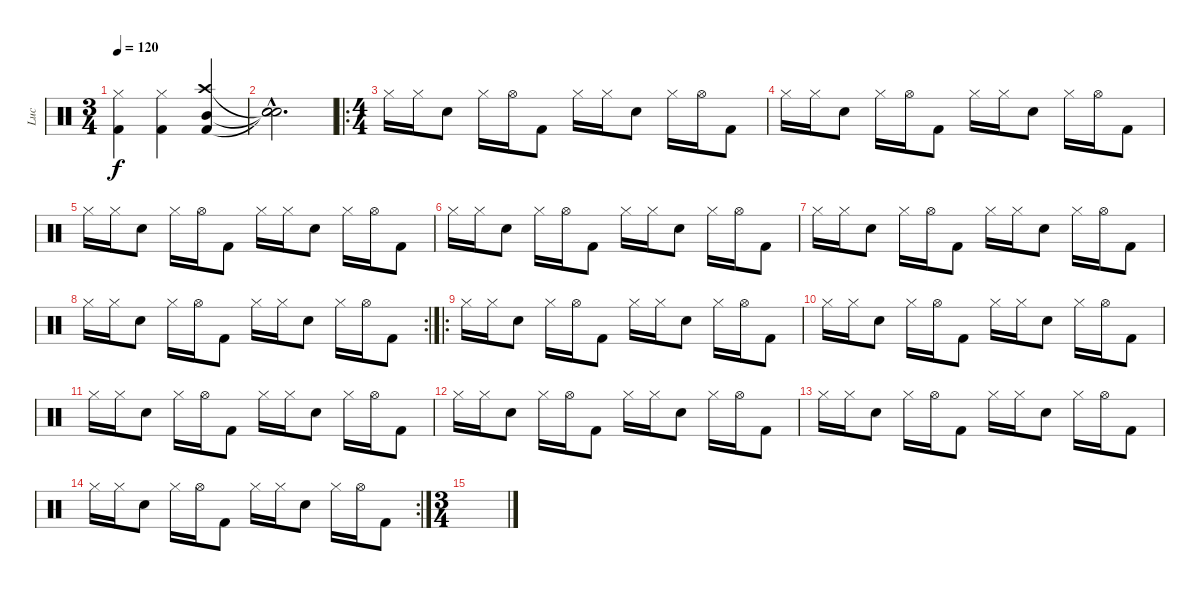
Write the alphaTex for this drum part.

\track ("Luc" "Luc") {instrument percussion}
\staff {score}
\articulation defaults
\ts (3 4)
\tempo 120
\clef neutral
\ks c
("Hi-Hat (closed)" "Kick (hit) 2").4{dy f} ("Hi-Hat (closed)" "Kick (hit) 2").4 ("Crash high (hit)" "Mid Tom (hit)" "Kick (hit) 2").4 |
("Snare (hit)"{hac t} "Snare (hit)"{hac t} "Snare (hit)"{hac t}).2{d} |
\ro
\ts (4 4)
"Hi-Hat (closed)".16 "Hi-Hat (closed)".16 "Snare (hit) 2".8 "Hi-Hat (closed)".16 "Hi-Hat (open)".16 "Kick (hit) 2".8 "Hi-Hat (closed)".16 "Hi-Hat (closed)".16 "Snare (hit) 2".8 "Hi-Hat (closed)".16 "Hi-Hat (open)".16 "Kick (hit) 2".8 |
"Hi-Hat (closed)".16 "Hi-Hat (closed)".16 "Snare (hit) 2".8 "Hi-Hat (closed)".16 "Hi-Hat (open)".16 "Kick (hit) 2".8 "Hi-Hat (closed)".16 "Hi-Hat (closed)".16 "Snare (hit) 2".8 "Hi-Hat (closed)".16 "Hi-Hat (open)".16 "Kick (hit) 2".8 |
"Hi-Hat (closed)".16 "Hi-Hat (closed)".16 "Snare (hit) 2".8 "Hi-Hat (closed)".16 "Hi-Hat (open)".16 "Kick (hit) 2".8 "Hi-Hat (closed)".16 "Hi-Hat (closed)".16 "Snare (hit) 2".8 "Hi-Hat (closed)".16 "Hi-Hat (open)".16 "Kick (hit) 2".8 |
"Hi-Hat (closed)".16 "Hi-Hat (closed)".16 "Snare (hit) 2".8 "Hi-Hat (closed)".16 "Hi-Hat (open)".16 "Kick (hit) 2".8 "Hi-Hat (closed)".16 "Hi-Hat (closed)".16 "Snare (hit) 2".8 "Hi-Hat (closed)".16 "Hi-Hat (open)".16 "Kick (hit) 2".8 |
"Hi-Hat (closed)".16 "Hi-Hat (closed)".16 "Snare (hit) 2".8 "Hi-Hat (closed)".16 "Hi-Hat (open)".16 "Kick (hit) 2".8 "Hi-Hat (closed)".16 "Hi-Hat (closed)".16 "Snare (hit) 2".8 "Hi-Hat (closed)".16 "Hi-Hat (open)".16 "Kick (hit) 2".8 |
\rc 2 "Hi-Hat (closed)".16 "Hi-Hat (closed)".16 "Snare (hit) 2".8 "Hi-Hat (closed)".16 "Hi-Hat (open)".16 "Kick (hit) 2".8 "Hi-Hat (closed)".16 "Hi-Hat (closed)".16 "Snare (hit) 2".8 "Hi-Hat (closed)".16 "Hi-Hat (open)".16 "Kick (hit) 2".8
|
\ro "Hi-Hat (closed)".16 "Hi-Hat (closed)".16 "Snare (hit) 2".8 "Hi-Hat (closed)".16 "Hi-Hat (open)".16 "Kick (hit) 2".8 "Hi-Hat (closed)".16 "Hi-Hat (closed)".16 "Snare (hit) 2".8 "Hi-Hat (closed)".16 "Hi-Hat (open)".16 "Kick (hit) 2".8
|
"Hi-Hat (closed)".16 "Hi-Hat (closed)".16 "Snare (hit) 2".8 "Hi-Hat (closed)".16 "Hi-Hat (open)".16 "Kick (hit) 2".8 "Hi-Hat (closed)".16 "Hi-Hat (closed)".16 "Snare (hit) 2".8 "Hi-Hat (closed)".16 "Hi-Hat (open)".16 "Kick (hit) 2".8 |
"Hi-Hat (closed)".16 "Hi-Hat (closed)".16 "Snare (hit) 2".8 "Hi-Hat (closed)".16 "Hi-Hat (open)".16 "Kick (hit) 2".8 "Hi-Hat (closed)".16 "Hi-Hat (closed)".16 "Snare (hit) 2".8 "Hi-Hat (closed)".16 "Hi-Hat (open)".16 "Kick (hit) 2".8 |
"Hi-Hat (closed)".16 "Hi-Hat (closed)".16 "Snare (hit) 2".8 "Hi-Hat (closed)".16 "Hi-Hat (open)".16 "Kick (hit) 2".8 "Hi-Hat (closed)".16 "Hi-Hat (closed)".16 "Snare (hit) 2".8 "Hi-Hat (closed)".16 "Hi-Hat (open)".16 "Kick (hit) 2".8 |
"Hi-Hat (closed)".16 "Hi-Hat (closed)".16 "Snare (hit) 2".8 "Hi-Hat (closed)".16 "Hi-Hat (open)".16 "Kick (hit) 2".8 "Hi-Hat (closed)".16 "Hi-Hat (closed)".16 "Snare (hit) 2".8 "Hi-Hat (closed)".16 "Hi-Hat (open)".16 "Kick (hit) 2".8 |
\rc 2 "Hi-Hat (closed)".16 "Hi-Hat (closed)".16 "Snare (hit) 2".8 "Hi-Hat (closed)".16 "Hi-Hat (open)".16 "Kick (hit) 2".8 "Hi-Hat (closed)".16 "Hi-Hat (closed)".16 "Snare (hit) 2".8 "Hi-Hat (closed)".16 "Hi-Hat (open)".16 "Kick (hit) 2".8
|
\ts (3 4)
